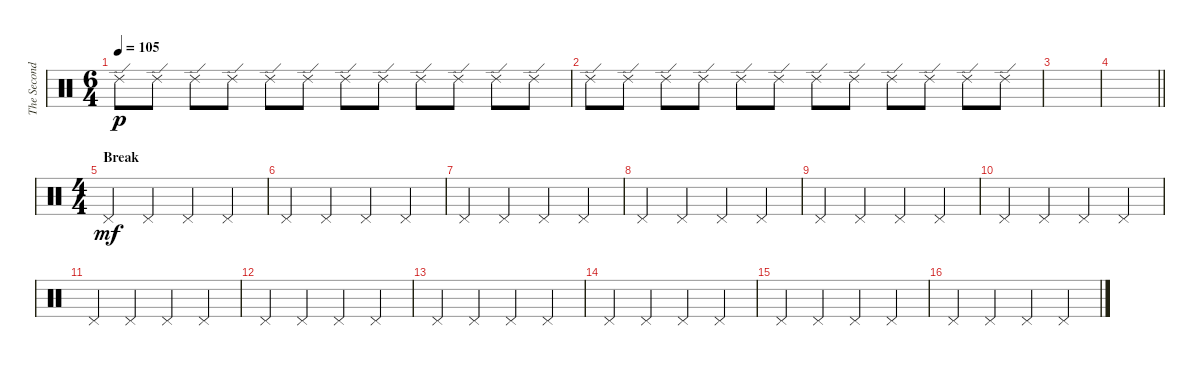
\track ("The Second Drummer" "The Second") {instrument percussion}
\staff {score}
\articulation defaults
\ts (6 4)
\tempo 105
\clef neutral
\ks c "Ride (edge) 2".8{dy p} "Ride (edge) 2".8 "Ride (edge) 2".8 "Ride (edge) 2".8 "Ride (edge) 2".8 "Ride (edge) 2".8 "Ride (edge) 2".8 "Ride (edge) 2".8 "Ride (edge) 2".8 "Ride (edge) 2".8 "Ride (edge) 2".8 "Ride (edge) 2".8
|
"Ride (edge) 2".8 "Ride (edge) 2".8 "Ride (edge) 2".8 "Ride (edge) 2".8 "Ride (edge) 2".8 "Ride (edge) 2".8 "Ride (edge) 2".8 "Ride (edge) 2".8 "Ride (edge) 2".8 "Ride (edge) 2".8 "Ride (edge) 2".8 "Ride (edge) 2".8 |
|
\barLineRight lightlight
|
\ts (4 4)
\section ("" "Break")
"Pedal Hi-Hat (hit)".4{dy mf} "Pedal Hi-Hat (hit)".4 "Pedal Hi-Hat (hit)".4 "Pedal Hi-Hat (hit)".4 |
"Pedal Hi-Hat (hit)".4 "Pedal Hi-Hat (hit)".4 "Pedal Hi-Hat (hit)".4 "Pedal Hi-Hat (hit)".4 |
"Pedal Hi-Hat (hit)".4 "Pedal Hi-Hat (hit)".4 "Pedal Hi-Hat (hit)".4 "Pedal Hi-Hat (hit)".4 |
"Pedal Hi-Hat (hit)".4 "Pedal Hi-Hat (hit)".4 "Pedal Hi-Hat (hit)".4 "Pedal Hi-Hat (hit)".4 |
"Pedal Hi-Hat (hit)".4 "Pedal Hi-Hat (hit)".4 "Pedal Hi-Hat (hit)".4 "Pedal Hi-Hat (hit)".4 |
"Pedal Hi-Hat (hit)".4 "Pedal Hi-Hat (hit)".4 "Pedal Hi-Hat (hit)".4 "Pedal Hi-Hat (hit)".4 |
"Pedal Hi-Hat (hit)".4 "Pedal Hi-Hat (hit)".4 "Pedal Hi-Hat (hit)".4 "Pedal Hi-Hat (hit)".4 |
"Pedal Hi-Hat (hit)".4 "Pedal Hi-Hat (hit)".4 "Pedal Hi-Hat (hit)".4 "Pedal Hi-Hat (hit)".4 |
"Pedal Hi-Hat (hit)".4 "Pedal Hi-Hat (hit)".4 "Pedal Hi-Hat (hit)".4 "Pedal Hi-Hat (hit)".4 |
"Pedal Hi-Hat (hit)".4 "Pedal Hi-Hat (hit)".4 "Pedal Hi-Hat (hit)".4 "Pedal Hi-Hat (hit)".4 |
"Pedal Hi-Hat (hit)".4 "Pedal Hi-Hat (hit)".4 "Pedal Hi-Hat (hit)".4 "Pedal Hi-Hat (hit)".4 |
"Pedal Hi-Hat (hit)".4 "Pedal Hi-Hat (hit)".4 "Pedal Hi-Hat (hit)".4 "Pedal Hi-Hat (hit)".4
